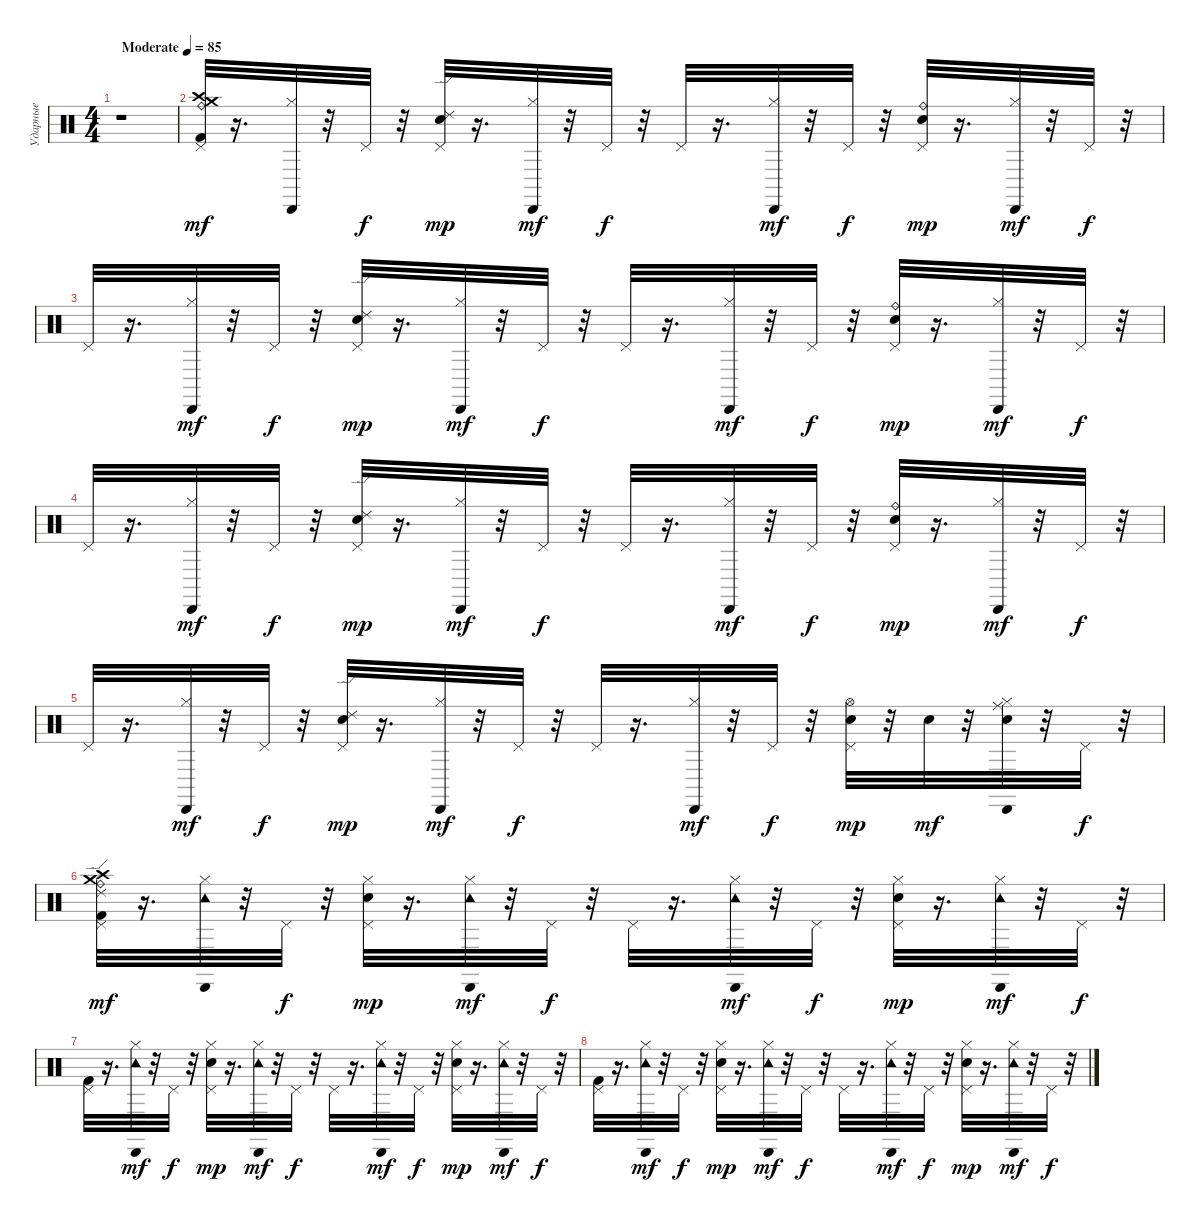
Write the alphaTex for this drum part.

\track ("Ударные" "Ударные") {instrument percussion}
\staff {score}
\articulation defaults
\ts (4 4)
\tempo (85 "Moderate")
\clef neutral
\ks c
r.1{dy mf} |
("Ride (bell)" "Crash high (hit)" "Crash medium (hit)" "Pedal Hi-Hat (hit)" "Kick (hit) 2").32{volume 12} r.16{d} ("Hi-Hat (closed)" "Cabasa (hit)").32 r.32 "Pedal Hi-Hat (hit)".32{dy f} r.32 ("Ride (edge) 2" "Pedal Hi-Hat (hit)" "Electric Snare (hit)").32{dy mp} r.16{d} ("Hi-Hat (closed)" "Cabasa (hit)").32{dy mf} r.32 "Pedal Hi-Hat (hit)".32{dy f} r.32 "Pedal Hi-Hat (hit)".32 r.16{d} ("Hi-Hat (closed)" "Cabasa (hit)").32{dy mf} r.32 "Pedal Hi-Hat (hit)".32{dy f} r.32 ("Ride (bell)" "Pedal Hi-Hat (hit)" "Electric Snare (hit)").32{dy mp} r.16{d} ("Hi-Hat (closed)" "Cabasa (hit)").32{dy mf} r.32 "Pedal Hi-Hat (hit)".32{dy f} r.32 |
"Pedal Hi-Hat (hit)".32 r.16{d} ("Hi-Hat (closed)" "Cabasa (hit)").32{dy mf} r.32 "Pedal Hi-Hat (hit)".32{dy f} r.32 ("Ride (edge) 2" "Pedal Hi-Hat (hit)" "Electric Snare (hit)").32{dy mp} r.16{d} ("Hi-Hat (closed)" "Cabasa (hit)").32{dy mf} r.32 "Pedal Hi-Hat (hit)".32{dy f} r.32 "Pedal Hi-Hat (hit)".32 r.16{d} ("Hi-Hat (closed)" "Cabasa (hit)").32{dy mf} r.32 "Pedal Hi-Hat (hit)".32{dy f} r.32 ("Ride (bell)" "Pedal Hi-Hat (hit)" "Electric Snare (hit)").32{dy mp} r.16{d} ("Hi-Hat (closed)" "Cabasa (hit)").32{dy mf} r.32 "Pedal Hi-Hat (hit)".32{dy f} r.32 |
"Pedal Hi-Hat (hit)".32 r.16{d} ("Hi-Hat (closed)" "Cabasa (hit)").32{dy mf} r.32 "Pedal Hi-Hat (hit)".32{dy f} r.32 ("Ride (edge) 2" "Pedal Hi-Hat (hit)" "Electric Snare (hit)").32{dy mp} r.16{d} ("Hi-Hat (closed)" "Cabasa (hit)").32{dy mf} r.32 "Pedal Hi-Hat (hit)".32{dy f} r.32 "Pedal Hi-Hat (hit)".32 r.16{d} ("Hi-Hat (closed)" "Cabasa (hit)").32{dy mf} r.32 "Pedal Hi-Hat (hit)".32{dy f} r.32 ("Ride (bell)" "Pedal Hi-Hat (hit)" "Electric Snare (hit)").32{dy mp} r.16{d} ("Hi-Hat (closed)" "Cabasa (hit)").32{dy mf} r.32 "Pedal Hi-Hat (hit)".32{dy f} r.32 |
"Pedal Hi-Hat (hit)".32 r.16{d} ("Hi-Hat (closed)" "Cabasa (hit)").32{dy mf} r.32 "Pedal Hi-Hat (hit)".32{dy f} r.32 ("Ride (edge) 2" "Pedal Hi-Hat (hit)" "Electric Snare (hit)").32{dy mp} r.16{d} ("Hi-Hat (closed)" "Cabasa (hit)").32{dy mf} r.32 "Pedal Hi-Hat (hit)".32{dy f} r.32 "Pedal Hi-Hat (hit)".32 r.16{d} ("Hi-Hat (closed)" "Cabasa (hit)").32{dy mf} r.32 "Pedal Hi-Hat (hit)".32{dy f} r.32 ("Hi-Hat (open)" "Pedal Hi-Hat (hit)" "Electric Snare (hit)").32{dy mp} r.32 "Snare (hit) 2".32{dy mf} r.32 ("Ride (middle)" "Hi-Hat (closed)" "Cabasa (hit)" "Snare (hit) 2").32 r.32 "Pedal Hi-Hat (hit)".32{dy f} r.32 |
("Ride (bell)" "Crash high (hit)" "Ride (edge) 2" "Crash medium (hit)" "Pedal Hi-Hat (hit)" "Kick (hit) 2").32{dy mf} r.16{d} ("Hi-Hat (closed)" "Cabasa (hit)" "Tambourine (hit)").32 r.32 "Pedal Hi-Hat (hit)".32{dy f} r.32 ("Hi-Hat (closed)" "Pedal Hi-Hat (hit)" "Electric Snare (hit)").32{dy mp} r.16{d} ("Hi-Hat (closed)" "Cabasa (hit)" "Tambourine (hit)").32{dy mf} r.32 "Pedal Hi-Hat (hit)".32{dy f} r.32 "Pedal Hi-Hat (hit)".32 r.16{d} ("Hi-Hat (closed)" "Cabasa (hit)" "Tambourine (hit)").32{dy mf} r.32 "Pedal Hi-Hat (hit)".32{dy f} r.32 ("Hi-Hat (closed)" "Pedal Hi-Hat (hit)" "Electric Snare (hit)").32{dy mp} r.16{d} ("Hi-Hat (closed)" "Cabasa (hit)" "Tambourine (hit)").32{dy mf} r.32 "Pedal Hi-Hat (hit)".32{dy f} r.32 |
("Pedal Hi-Hat (hit)" "Kick (hit) 2").32 r.16{d} ("Hi-Hat (closed)" "Cabasa (hit)" "Tambourine (hit)").32{dy mf} r.32 "Pedal Hi-Hat (hit)".32{dy f} r.32 ("Hi-Hat (closed)" "Pedal Hi-Hat (hit)" "Electric Snare (hit)").32{dy mp} r.16{d} ("Hi-Hat (closed)" "Cabasa (hit)" "Tambourine (hit)").32{dy mf} r.32 "Pedal Hi-Hat (hit)".32{dy f} r.32 "Pedal Hi-Hat (hit)".32 r.16{d} ("Hi-Hat (closed)" "Cabasa (hit)" "Tambourine (hit)").32{dy mf} r.32 "Pedal Hi-Hat (hit)".32{dy f} r.32 ("Hi-Hat (closed)" "Pedal Hi-Hat (hit)" "Electric Snare (hit)").32{dy mp} r.16{d} ("Hi-Hat (closed)" "Cabasa (hit)" "Tambourine (hit)").32{dy mf} r.32 "Pedal Hi-Hat (hit)".32{dy f} r.32 |
("Pedal Hi-Hat (hit)" "Kick (hit) 2").32 r.16{d} ("Hi-Hat (closed)" "Cabasa (hit)" "Tambourine (hit)").32{dy mf} r.32 "Pedal Hi-Hat (hit)".32{dy f} r.32 ("Hi-Hat (closed)" "Pedal Hi-Hat (hit)" "Electric Snare (hit)").32{dy mp} r.16{d} ("Hi-Hat (closed)" "Cabasa (hit)" "Tambourine (hit)").32{dy mf} r.32 "Pedal Hi-Hat (hit)".32{dy f} r.32 "Pedal Hi-Hat (hit)".32 r.16{d} ("Hi-Hat (closed)" "Cabasa (hit)" "Tambourine (hit)").32{dy mf} r.32 "Pedal Hi-Hat (hit)".32{dy f} r.32 ("Hi-Hat (closed)" "Pedal Hi-Hat (hit)" "Electric Snare (hit)").32{dy mp} r.16{d} ("Hi-Hat (closed)" "Cabasa (hit)" "Tambourine (hit)").32{dy mf} r.32 "Pedal Hi-Hat (hit)".32{dy f} r.32
